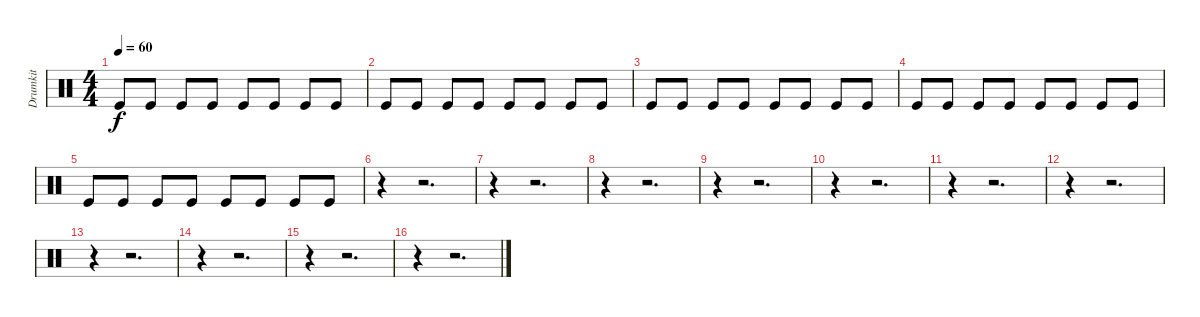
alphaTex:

\track ("Drumkit" "Drumkit") {instrument percussion}
\staff {score}
\articulation defaults
\ts (4 4)
\tempo 60
\clef neutral
\ks c "Kick (hit)".8{dy f} "Kick (hit)".8 "Kick (hit)".8 "Kick (hit)".8 "Kick (hit)".8 "Kick (hit)".8 "Kick (hit)".8 "Kick (hit)".8
|
"Kick (hit)".8 "Kick (hit)".8 "Kick (hit)".8 "Kick (hit)".8 "Kick (hit)".8 "Kick (hit)".8 "Kick (hit)".8 "Kick (hit)".8 |
"Kick (hit)".8 "Kick (hit)".8 "Kick (hit)".8 "Kick (hit)".8 "Kick (hit)".8 "Kick (hit)".8 "Kick (hit)".8 "Kick (hit)".8 |
"Kick (hit)".8 "Kick (hit)".8 "Kick (hit)".8 "Kick (hit)".8 "Kick (hit)".8 "Kick (hit)".8 "Kick (hit)".8 "Kick (hit)".8 |
"Kick (hit)".8 "Kick (hit)".8 "Kick (hit)".8 "Kick (hit)".8 "Kick (hit)".8 "Kick (hit)".8 "Kick (hit)".8 "Kick (hit)".8 |
r.4 r.2{d} |
r.4 r.2{d} |
r.4 r.2{d} |
r.4 r.2{d} |
r.4 r.2{d} |
r.4 r.2{d} |
r.4 r.2{d} |
r.4 r.2{d} |
r.4 r.2{d} |
r.4 r.2{d} |
r.4 r.2{d}
